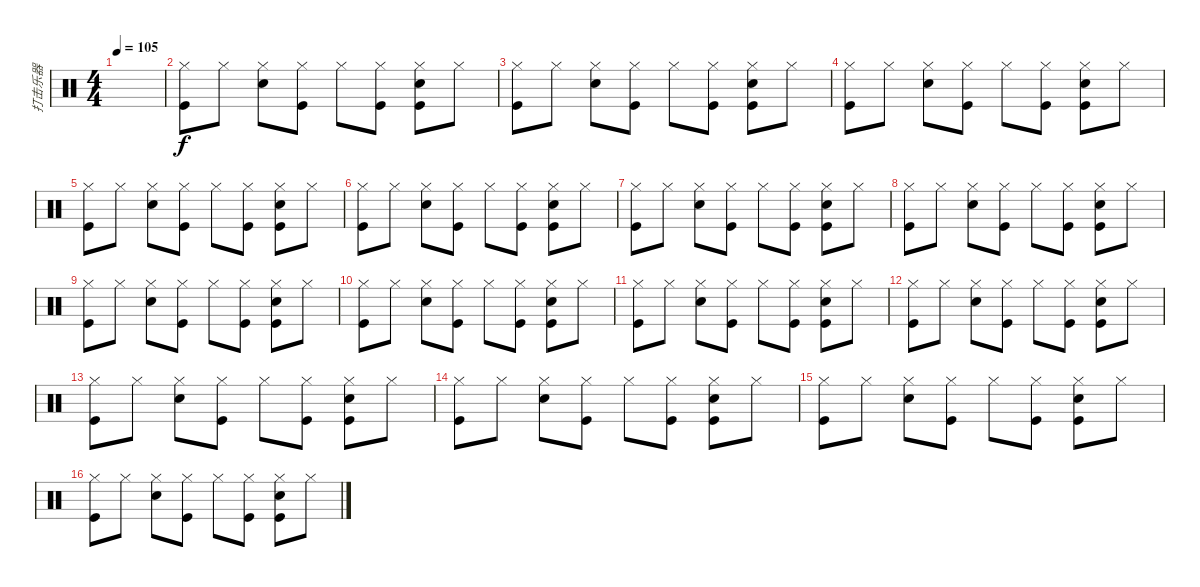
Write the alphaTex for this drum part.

\track ("打击乐器" "打击乐器") {instrument percussion}
\staff {score}
\articulation defaults
\ts (4 4)
\tempo 105
\clef neutral
\ks c
|
("Hi-Hat (closed)" "Kick (hit)").8 "Hi-Hat (closed)".8 ("Hi-Hat (closed)" "Snare (hit) 2").8 ("Hi-Hat (closed)" "Kick (hit)").8 "Hi-Hat (closed)".8 ("Hi-Hat (closed)" "Kick (hit)").8 ("Hi-Hat (closed)" "Snare (hit) 2" "Kick (hit)").8 "Hi-Hat (closed)".8 |
("Hi-Hat (closed)" "Kick (hit)").8 "Hi-Hat (closed)".8 ("Hi-Hat (closed)" "Snare (hit) 2").8 ("Hi-Hat (closed)" "Kick (hit)").8 "Hi-Hat (closed)".8 ("Hi-Hat (closed)" "Kick (hit)").8 ("Hi-Hat (closed)" "Snare (hit) 2" "Kick (hit)").8 "Hi-Hat (closed)".8 |
("Hi-Hat (closed)" "Kick (hit)").8 "Hi-Hat (closed)".8 ("Hi-Hat (closed)" "Snare (hit) 2").8 ("Hi-Hat (closed)" "Kick (hit)").8 "Hi-Hat (closed)".8 ("Hi-Hat (closed)" "Kick (hit)").8 ("Hi-Hat (closed)" "Snare (hit) 2" "Kick (hit)").8 "Hi-Hat (closed)".8 |
("Hi-Hat (closed)" "Kick (hit)").8 "Hi-Hat (closed)".8 ("Hi-Hat (closed)" "Snare (hit) 2").8 ("Hi-Hat (closed)" "Kick (hit)").8 "Hi-Hat (closed)".8 ("Hi-Hat (closed)" "Kick (hit)").8 ("Hi-Hat (closed)" "Snare (hit) 2" "Kick (hit)").8 "Hi-Hat (closed)".8 |
("Hi-Hat (closed)" "Kick (hit)").8 "Hi-Hat (closed)".8 ("Hi-Hat (closed)" "Snare (hit) 2").8 ("Hi-Hat (closed)" "Kick (hit)").8 "Hi-Hat (closed)".8 ("Hi-Hat (closed)" "Kick (hit)").8 ("Hi-Hat (closed)" "Snare (hit) 2" "Kick (hit)").8 "Hi-Hat (closed)".8 |
("Hi-Hat (closed)" "Kick (hit)").8 "Hi-Hat (closed)".8 ("Hi-Hat (closed)" "Snare (hit) 2").8 ("Hi-Hat (closed)" "Kick (hit)").8 "Hi-Hat (closed)".8 ("Hi-Hat (closed)" "Kick (hit)").8 ("Hi-Hat (closed)" "Snare (hit) 2" "Kick (hit)").8 "Hi-Hat (closed)".8 |
("Hi-Hat (closed)" "Kick (hit)").8 "Hi-Hat (closed)".8 ("Hi-Hat (closed)" "Snare (hit) 2").8 ("Hi-Hat (closed)" "Kick (hit)").8 "Hi-Hat (closed)".8 ("Hi-Hat (closed)" "Kick (hit)").8 ("Hi-Hat (closed)" "Snare (hit) 2" "Kick (hit)").8 "Hi-Hat (closed)".8 |
("Hi-Hat (closed)" "Kick (hit)").8 "Hi-Hat (closed)".8 ("Hi-Hat (closed)" "Snare (hit) 2").8 ("Hi-Hat (closed)" "Kick (hit)").8 "Hi-Hat (closed)".8 ("Hi-Hat (closed)" "Kick (hit)").8 ("Hi-Hat (closed)" "Snare (hit) 2" "Kick (hit)").8 "Hi-Hat (closed)".8 |
("Hi-Hat (closed)" "Kick (hit)").8 "Hi-Hat (closed)".8 ("Hi-Hat (closed)" "Snare (hit) 2").8 ("Hi-Hat (closed)" "Kick (hit)").8 "Hi-Hat (closed)".8 ("Hi-Hat (closed)" "Kick (hit)").8 ("Hi-Hat (closed)" "Snare (hit) 2" "Kick (hit)").8 "Hi-Hat (closed)".8 |
("Hi-Hat (closed)" "Kick (hit)").8 "Hi-Hat (closed)".8 ("Hi-Hat (closed)" "Snare (hit) 2").8 ("Hi-Hat (closed)" "Kick (hit)").8 "Hi-Hat (closed)".8 ("Hi-Hat (closed)" "Kick (hit)").8 ("Hi-Hat (closed)" "Snare (hit) 2" "Kick (hit)").8 "Hi-Hat (closed)".8 |
("Hi-Hat (closed)" "Kick (hit)").8 "Hi-Hat (closed)".8 ("Hi-Hat (closed)" "Snare (hit) 2").8 ("Hi-Hat (closed)" "Kick (hit)").8 "Hi-Hat (closed)".8 ("Hi-Hat (closed)" "Kick (hit)").8 ("Hi-Hat (closed)" "Snare (hit) 2" "Kick (hit)").8 "Hi-Hat (closed)".8 |
("Hi-Hat (closed)" "Kick (hit)").8 "Hi-Hat (closed)".8 ("Hi-Hat (closed)" "Snare (hit) 2").8 ("Hi-Hat (closed)" "Kick (hit)").8 "Hi-Hat (closed)".8 ("Hi-Hat (closed)" "Kick (hit)").8 ("Hi-Hat (closed)" "Snare (hit) 2" "Kick (hit)").8 "Hi-Hat (closed)".8 |
("Hi-Hat (closed)" "Kick (hit)").8 "Hi-Hat (closed)".8 ("Hi-Hat (closed)" "Snare (hit) 2").8 ("Hi-Hat (closed)" "Kick (hit)").8 "Hi-Hat (closed)".8 ("Hi-Hat (closed)" "Kick (hit)").8 ("Hi-Hat (closed)" "Snare (hit) 2" "Kick (hit)").8 "Hi-Hat (closed)".8 |
("Hi-Hat (closed)" "Kick (hit)").8 "Hi-Hat (closed)".8 ("Hi-Hat (closed)" "Snare (hit) 2").8 ("Hi-Hat (closed)" "Kick (hit)").8 "Hi-Hat (closed)".8 ("Hi-Hat (closed)" "Kick (hit)").8 ("Hi-Hat (closed)" "Snare (hit) 2" "Kick (hit)").8 "Hi-Hat (closed)".8 |
("Hi-Hat (closed)" "Kick (hit)").8 "Hi-Hat (closed)".8 ("Hi-Hat (closed)" "Snare (hit) 2").8 ("Hi-Hat (closed)" "Kick (hit)").8 "Hi-Hat (closed)".8 ("Hi-Hat (closed)" "Kick (hit)").8 ("Hi-Hat (closed)" "Snare (hit) 2" "Kick (hit)").8 "Hi-Hat (closed)".8
